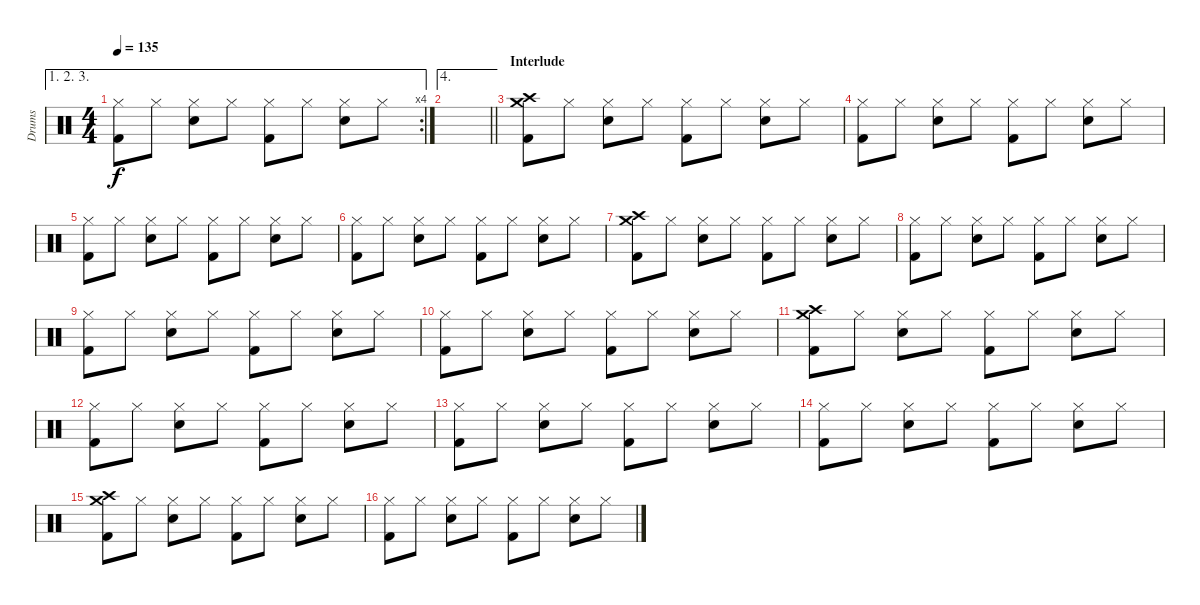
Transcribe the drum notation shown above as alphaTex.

\track ("Drums" "Drums") {instrument percussion}
\staff {score}
\articulation defaults
\ae (1 2 3)
\rc 4
\ts (4 4)
\tempo 135
\clef neutral
\ks c
("Hi-Hat (closed)" "Kick (hit) 2").8{dy f} "Hi-Hat (closed)".8 ("Hi-Hat (closed)" "Electric Snare (hit)").8 "Hi-Hat (closed)".8 ("Hi-Hat (closed)" "Kick (hit) 2").8 "Hi-Hat (closed)".8 ("Hi-Hat (closed)" "Electric Snare (hit)").8 "Hi-Hat (closed)".8 |
\ae 4
\barLineRight lightlight
|
\section ("" "Interlude")
("Crash high (hit)" "Crash medium (hit)" "Kick (hit) 2").8 "Hi-Hat (closed)".8 ("Hi-Hat (closed)" "Electric Snare (hit)").8 "Hi-Hat (closed)".8 ("Hi-Hat (closed)" "Kick (hit) 2").8 "Hi-Hat (closed)".8 ("Hi-Hat (closed)" "Electric Snare (hit)").8 "Hi-Hat (closed)".8 |
("Hi-Hat (closed)" "Kick (hit) 2").8 "Hi-Hat (closed)".8 ("Hi-Hat (closed)" "Electric Snare (hit)").8 "Hi-Hat (closed)".8 ("Hi-Hat (closed)" "Kick (hit) 2").8 "Hi-Hat (closed)".8 ("Hi-Hat (closed)" "Electric Snare (hit)").8 "Hi-Hat (closed)".8 |
("Hi-Hat (closed)" "Kick (hit) 2").8 "Hi-Hat (closed)".8 ("Hi-Hat (closed)" "Electric Snare (hit)").8 "Hi-Hat (closed)".8 ("Hi-Hat (closed)" "Kick (hit) 2").8 "Hi-Hat (closed)".8 ("Hi-Hat (closed)" "Electric Snare (hit)").8 "Hi-Hat (closed)".8 |
("Hi-Hat (closed)" "Kick (hit) 2").8 "Hi-Hat (closed)".8 ("Hi-Hat (closed)" "Electric Snare (hit)").8 "Hi-Hat (closed)".8 ("Hi-Hat (closed)" "Kick (hit) 2").8 "Hi-Hat (closed)".8 ("Hi-Hat (closed)" "Electric Snare (hit)").8 "Hi-Hat (closed)".8 |
("Crash high (hit)" "Crash medium (hit)" "Kick (hit) 2").8 "Hi-Hat (closed)".8 ("Hi-Hat (closed)" "Electric Snare (hit)").8 "Hi-Hat (closed)".8 ("Hi-Hat (closed)" "Kick (hit) 2").8 "Hi-Hat (closed)".8 ("Hi-Hat (closed)" "Electric Snare (hit)").8 "Hi-Hat (closed)".8 |
("Hi-Hat (closed)" "Kick (hit) 2").8 "Hi-Hat (closed)".8 ("Hi-Hat (closed)" "Electric Snare (hit)").8 "Hi-Hat (closed)".8 ("Hi-Hat (closed)" "Kick (hit) 2").8 "Hi-Hat (closed)".8 ("Hi-Hat (closed)" "Electric Snare (hit)").8 "Hi-Hat (closed)".8 |
("Hi-Hat (closed)" "Kick (hit) 2").8 "Hi-Hat (closed)".8 ("Hi-Hat (closed)" "Electric Snare (hit)").8 "Hi-Hat (closed)".8 ("Hi-Hat (closed)" "Kick (hit) 2").8 "Hi-Hat (closed)".8 ("Hi-Hat (closed)" "Electric Snare (hit)").8 "Hi-Hat (closed)".8 |
("Hi-Hat (closed)" "Kick (hit) 2").8 "Hi-Hat (closed)".8 ("Hi-Hat (closed)" "Electric Snare (hit)").8 "Hi-Hat (closed)".8 ("Hi-Hat (closed)" "Kick (hit) 2").8 "Hi-Hat (closed)".8 ("Hi-Hat (closed)" "Electric Snare (hit)").8 "Hi-Hat (closed)".8 |
("Crash high (hit)" "Crash medium (hit)" "Kick (hit) 2").8 "Hi-Hat (closed)".8 ("Hi-Hat (closed)" "Electric Snare (hit)").8 "Hi-Hat (closed)".8 ("Hi-Hat (closed)" "Kick (hit) 2").8 "Hi-Hat (closed)".8 ("Hi-Hat (closed)" "Electric Snare (hit)").8 "Hi-Hat (closed)".8 |
("Hi-Hat (closed)" "Kick (hit) 2").8 "Hi-Hat (closed)".8 ("Hi-Hat (closed)" "Electric Snare (hit)").8 "Hi-Hat (closed)".8 ("Hi-Hat (closed)" "Kick (hit) 2").8 "Hi-Hat (closed)".8 ("Hi-Hat (closed)" "Electric Snare (hit)").8 "Hi-Hat (closed)".8 |
("Hi-Hat (closed)" "Kick (hit) 2").8 "Hi-Hat (closed)".8 ("Hi-Hat (closed)" "Electric Snare (hit)").8 "Hi-Hat (closed)".8 ("Hi-Hat (closed)" "Kick (hit) 2").8 "Hi-Hat (closed)".8 ("Hi-Hat (closed)" "Electric Snare (hit)").8 "Hi-Hat (closed)".8 |
("Hi-Hat (closed)" "Kick (hit) 2").8 "Hi-Hat (closed)".8 ("Hi-Hat (closed)" "Electric Snare (hit)").8 "Hi-Hat (closed)".8 ("Hi-Hat (closed)" "Kick (hit) 2").8 "Hi-Hat (closed)".8 ("Hi-Hat (closed)" "Electric Snare (hit)").8 "Hi-Hat (closed)".8 |
("Crash high (hit)" "Crash medium (hit)" "Kick (hit) 2").8 "Hi-Hat (closed)".8 ("Hi-Hat (closed)" "Electric Snare (hit)").8 "Hi-Hat (closed)".8 ("Hi-Hat (closed)" "Kick (hit) 2").8 "Hi-Hat (closed)".8 ("Hi-Hat (closed)" "Electric Snare (hit)").8 "Hi-Hat (closed)".8 |
("Hi-Hat (closed)" "Kick (hit) 2").8 "Hi-Hat (closed)".8 ("Hi-Hat (closed)" "Electric Snare (hit)").8 "Hi-Hat (closed)".8 ("Hi-Hat (closed)" "Kick (hit) 2").8 "Hi-Hat (closed)".8 ("Hi-Hat (closed)" "Electric Snare (hit)").8 "Hi-Hat (closed)".8
